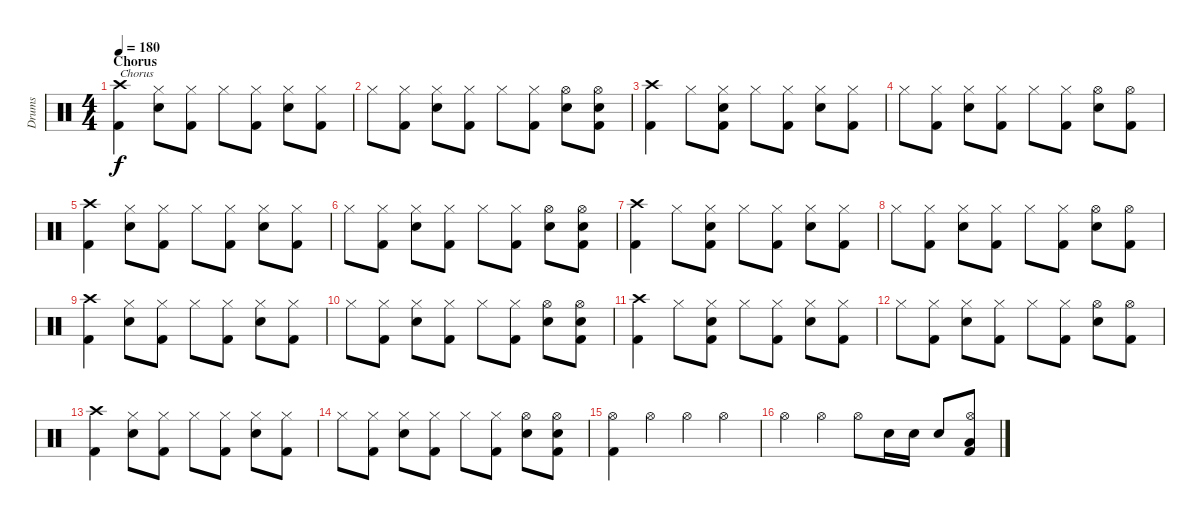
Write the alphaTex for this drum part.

\track ("Drums" "Drums") {instrument percussion}
\staff {score}
\articulation defaults
\ts (4 4)
\section ("" "Chorus")
\tempo 180
\clef neutral
\ks c
("Crash high (hit)" "Kick (hit) 2").4{txt "Chorus" dy f} ("Hi-Hat (closed)" "Electric Snare (hit)").8 ("Hi-Hat (closed)" "Kick (hit) 2").8 "Hi-Hat (closed)".8 ("Hi-Hat (closed)" "Kick (hit) 2").8 ("Hi-Hat (closed)" "Electric Snare (hit)").8 ("Hi-Hat (closed)" "Kick (hit) 2").8 |
"Hi-Hat (closed)".8 ("Hi-Hat (closed)" "Kick (hit) 2").8 ("Hi-Hat (closed)" "Electric Snare (hit)").8 ("Hi-Hat (closed)" "Kick (hit) 2").8 "Hi-Hat (closed)".8 ("Hi-Hat (closed)" "Kick (hit) 2").8 ("Hi-Hat (open)" "Electric Snare (hit)").8 ("Hi-Hat (open)" "Electric Snare (hit)" "Kick (hit) 2").8 |
("Crash high (hit)" "Kick (hit) 2").4 "Hi-Hat (closed)".8 ("Hi-Hat (closed)" "Electric Snare (hit)" "Kick (hit) 2").8 "Hi-Hat (closed)".8 ("Hi-Hat (closed)" "Kick (hit) 2").8 ("Hi-Hat (closed)" "Electric Snare (hit)").8 ("Hi-Hat (closed)" "Kick (hit) 2").8 |
"Hi-Hat (closed)".8 ("Hi-Hat (closed)" "Kick (hit) 2").8 ("Hi-Hat (closed)" "Electric Snare (hit)").8 ("Hi-Hat (closed)" "Kick (hit) 2").8 "Hi-Hat (closed)".8 ("Hi-Hat (closed)" "Kick (hit) 2").8 ("Hi-Hat (open)" "Electric Snare (hit)").8 ("Hi-Hat (open)" "Kick (hit) 2").8 |
("Crash high (hit)" "Kick (hit) 2").4 ("Hi-Hat (closed)" "Electric Snare (hit)").8 ("Hi-Hat (closed)" "Kick (hit) 2").8 "Hi-Hat (closed)".8 ("Hi-Hat (closed)" "Kick (hit) 2").8 ("Hi-Hat (closed)" "Electric Snare (hit)").8 ("Hi-Hat (closed)" "Kick (hit) 2").8 |
"Hi-Hat (closed)".8 ("Hi-Hat (closed)" "Kick (hit) 2").8 ("Hi-Hat (closed)" "Electric Snare (hit)").8 ("Hi-Hat (closed)" "Kick (hit) 2").8 "Hi-Hat (closed)".8 ("Hi-Hat (closed)" "Kick (hit) 2").8 ("Hi-Hat (open)" "Electric Snare (hit)").8 ("Hi-Hat (open)" "Electric Snare (hit)" "Kick (hit) 2").8 |
("Crash high (hit)" "Kick (hit) 2").4 "Hi-Hat (closed)".8 ("Hi-Hat (closed)" "Electric Snare (hit)" "Kick (hit) 2").8 "Hi-Hat (closed)".8 ("Hi-Hat (closed)" "Kick (hit) 2").8 ("Hi-Hat (closed)" "Electric Snare (hit)").8 ("Hi-Hat (closed)" "Kick (hit) 2").8 |
"Hi-Hat (closed)".8 ("Hi-Hat (closed)" "Kick (hit) 2").8 ("Hi-Hat (closed)" "Electric Snare (hit)").8 ("Hi-Hat (closed)" "Kick (hit) 2").8 "Hi-Hat (closed)".8 ("Hi-Hat (closed)" "Kick (hit) 2").8 ("Hi-Hat (open)" "Electric Snare (hit)").8 ("Hi-Hat (open)" "Kick (hit) 2").8 |
("Crash high (hit)" "Kick (hit) 2").4 ("Hi-Hat (closed)" "Electric Snare (hit)").8 ("Hi-Hat (closed)" "Kick (hit) 2").8 "Hi-Hat (closed)".8 ("Hi-Hat (closed)" "Kick (hit) 2").8 ("Hi-Hat (closed)" "Electric Snare (hit)").8 ("Hi-Hat (closed)" "Kick (hit) 2").8 |
"Hi-Hat (closed)".8 ("Hi-Hat (closed)" "Kick (hit) 2").8 ("Hi-Hat (closed)" "Electric Snare (hit)").8 ("Hi-Hat (closed)" "Kick (hit) 2").8 "Hi-Hat (closed)".8 ("Hi-Hat (closed)" "Kick (hit) 2").8 ("Hi-Hat (open)" "Electric Snare (hit)").8 ("Hi-Hat (open)" "Electric Snare (hit)" "Kick (hit) 2").8 |
("Crash high (hit)" "Kick (hit) 2").4 "Hi-Hat (closed)".8 ("Hi-Hat (closed)" "Electric Snare (hit)" "Kick (hit) 2").8 "Hi-Hat (closed)".8 ("Hi-Hat (closed)" "Kick (hit) 2").8 ("Hi-Hat (closed)" "Electric Snare (hit)").8 ("Hi-Hat (closed)" "Kick (hit) 2").8 |
"Hi-Hat (closed)".8 ("Hi-Hat (closed)" "Kick (hit) 2").8 ("Hi-Hat (closed)" "Electric Snare (hit)").8 ("Hi-Hat (closed)" "Kick (hit) 2").8 "Hi-Hat (closed)".8 ("Hi-Hat (closed)" "Kick (hit) 2").8 ("Hi-Hat (open)" "Electric Snare (hit)").8 ("Hi-Hat (open)" "Kick (hit) 2").8 |
("Crash high (hit)" "Kick (hit) 2").4 ("Hi-Hat (closed)" "Electric Snare (hit)").8 ("Hi-Hat (closed)" "Kick (hit) 2").8 "Hi-Hat (closed)".8 ("Hi-Hat (closed)" "Kick (hit) 2").8 ("Hi-Hat (closed)" "Electric Snare (hit)").8 ("Hi-Hat (closed)" "Kick (hit) 2").8 |
"Hi-Hat (closed)".8 ("Hi-Hat (closed)" "Kick (hit) 2").8 ("Hi-Hat (closed)" "Electric Snare (hit)").8 ("Hi-Hat (closed)" "Kick (hit) 2").8 "Hi-Hat (closed)".8 ("Hi-Hat (closed)" "Kick (hit) 2").8 ("Hi-Hat (open)" "Electric Snare (hit)").8 ("Hi-Hat (open)" "Electric Snare (hit)" "Kick (hit) 2").8 |
("Hi-Hat (open)" "Kick (hit) 2").4 "Hi-Hat (open)".4 "Hi-Hat (open)".4 "Hi-Hat (open)".4 |
"Hi-Hat (open)".4 "Hi-Hat (open)".4 "Hi-Hat (open)".8 "Electric Snare (hit)".16 "Electric Snare (hit)".16 "Electric Snare (hit)".8 ("Hi-Hat (open)" "Low Floor Tom (hit)" "Kick (hit) 2").8
